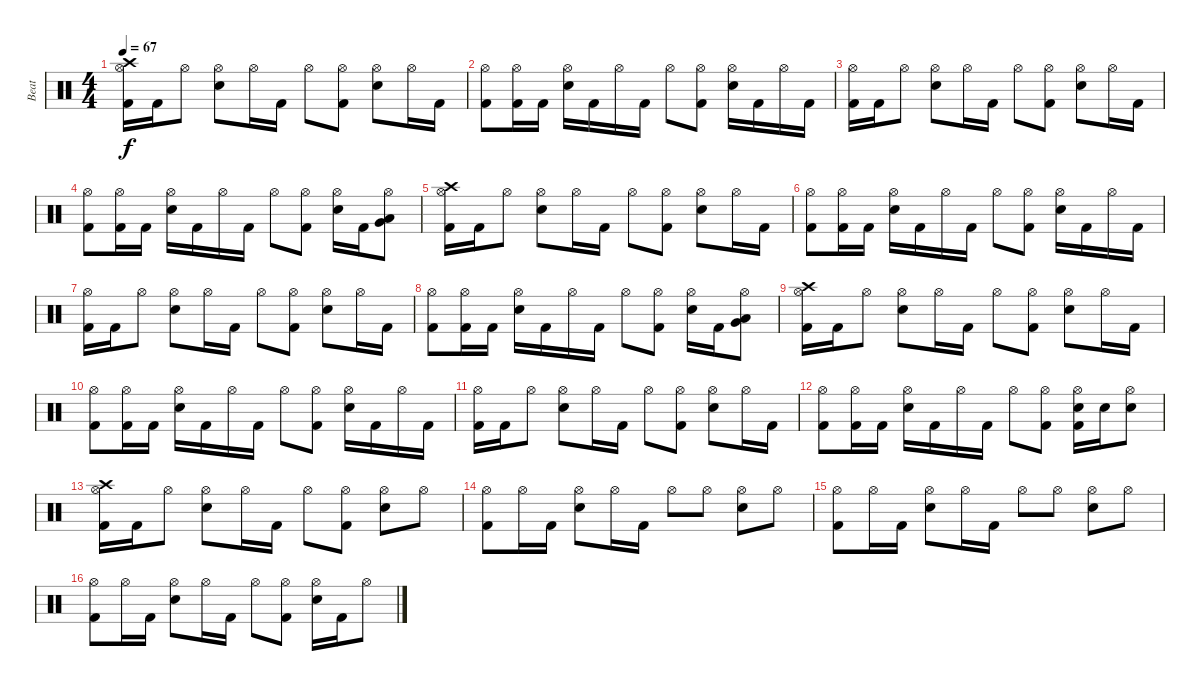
\track ("Beat" "Beat") {instrument percussion}
\staff {score}
\articulation defaults
\ts (4 4)
\tempo 67
\clef neutral
\ks c
("Crash high (hit)" "Hi-Hat (open)" "Kick (hit) 2").16{dy f} "Kick (hit) 2".16 "Hi-Hat (open)".8 ("Hi-Hat (open)" "Electric Snare (hit)").8 "Hi-Hat (open)".16 "Kick (hit) 2".16 "Hi-Hat (open)".8 ("Hi-Hat (open)" "Kick (hit) 2").8 ("Hi-Hat (open)" "Electric Snare (hit)").8 "Hi-Hat (open)".16 "Kick (hit) 2".16 |
("Hi-Hat (open)" "Kick (hit) 2").8 ("Hi-Hat (open)" "Kick (hit) 2").16 "Kick (hit) 2".16 ("Hi-Hat (open)" "Electric Snare (hit)").16 "Kick (hit) 2".16 "Hi-Hat (open)".16 "Kick (hit) 2".16 "Hi-Hat (open)".8 ("Hi-Hat (open)" "Kick (hit) 2").8 ("Hi-Hat (open)" "Electric Snare (hit)").16 "Kick (hit) 2".16 "Hi-Hat (open)".16 "Kick (hit) 2".16 |
("Hi-Hat (open)" "Kick (hit) 2").16 "Kick (hit) 2".16 "Hi-Hat (open)".8 ("Hi-Hat (open)" "Electric Snare (hit)").8 "Hi-Hat (open)".16 "Kick (hit) 2".16 "Hi-Hat (open)".8 ("Hi-Hat (open)" "Kick (hit) 2").8 ("Hi-Hat (open)" "Electric Snare (hit)").8 "Hi-Hat (open)".16 "Kick (hit) 2".16 |
("Hi-Hat (open)" "Kick (hit) 2").8 ("Hi-Hat (open)" "Kick (hit) 2").16 "Kick (hit) 2".16 ("Hi-Hat (open)" "Electric Snare (hit)").16 "Kick (hit) 2".16 "Hi-Hat (open)".16 "Kick (hit) 2".16 "Hi-Hat (open)".8 ("Hi-Hat (open)" "Kick (hit) 2").8 ("Hi-Hat (open)" "Electric Snare (hit)").16 "Kick (hit) 2".16 ("Hi-Hat (open)" "Very Low Tom (hit)" "Low Tom (hit)").8 |
("Crash high (hit)" "Hi-Hat (open)" "Kick (hit) 2").16 "Kick (hit) 2".16 "Hi-Hat (open)".8 ("Hi-Hat (open)" "Electric Snare (hit)").8 "Hi-Hat (open)".16 "Kick (hit) 2".16 "Hi-Hat (open)".8 ("Hi-Hat (open)" "Kick (hit) 2").8 ("Hi-Hat (open)" "Electric Snare (hit)").8 "Hi-Hat (open)".16 "Kick (hit) 2".16 |
("Hi-Hat (open)" "Kick (hit) 2").8 ("Hi-Hat (open)" "Kick (hit) 2").16 "Kick (hit) 2".16 ("Hi-Hat (open)" "Electric Snare (hit)").16 "Kick (hit) 2".16 "Hi-Hat (open)".16 "Kick (hit) 2".16 "Hi-Hat (open)".8 ("Hi-Hat (open)" "Kick (hit) 2").8 ("Hi-Hat (open)" "Electric Snare (hit)").16 "Kick (hit) 2".16 "Hi-Hat (open)".16 "Kick (hit) 2".16 |
("Hi-Hat (open)" "Kick (hit) 2").16 "Kick (hit) 2".16 "Hi-Hat (open)".8 ("Hi-Hat (open)" "Electric Snare (hit)").8 "Hi-Hat (open)".16 "Kick (hit) 2".16 "Hi-Hat (open)".8 ("Hi-Hat (open)" "Kick (hit) 2").8 ("Hi-Hat (open)" "Electric Snare (hit)").8 "Hi-Hat (open)".16 "Kick (hit) 2".16 |
("Hi-Hat (open)" "Kick (hit) 2").8 ("Hi-Hat (open)" "Kick (hit) 2").16 "Kick (hit) 2".16 ("Hi-Hat (open)" "Electric Snare (hit)").16 "Kick (hit) 2".16 "Hi-Hat (open)".16 "Kick (hit) 2".16 "Hi-Hat (open)".8 ("Hi-Hat (open)" "Kick (hit) 2").8 ("Hi-Hat (open)" "Electric Snare (hit)").16 "Kick (hit) 2".16 ("Hi-Hat (open)" "Very Low Tom (hit)" "Low Tom (hit)").8 |
("Crash high (hit)" "Hi-Hat (open)" "Kick (hit) 2").16 "Kick (hit) 2".16 "Hi-Hat (open)".8 ("Hi-Hat (open)" "Electric Snare (hit)").8 "Hi-Hat (open)".16 "Kick (hit) 2".16 "Hi-Hat (open)".8 ("Hi-Hat (open)" "Kick (hit) 2").8 ("Hi-Hat (open)" "Electric Snare (hit)").8 "Hi-Hat (open)".16 "Kick (hit) 2".16 |
("Hi-Hat (open)" "Kick (hit) 2").8 ("Hi-Hat (open)" "Kick (hit) 2").16 "Kick (hit) 2".16 ("Hi-Hat (open)" "Electric Snare (hit)").16 "Kick (hit) 2".16 "Hi-Hat (open)".16 "Kick (hit) 2".16 "Hi-Hat (open)".8 ("Hi-Hat (open)" "Kick (hit) 2").8 ("Hi-Hat (open)" "Electric Snare (hit)").16 "Kick (hit) 2".16 "Hi-Hat (open)".16 "Kick (hit) 2".16 |
("Hi-Hat (open)" "Kick (hit) 2").16 "Kick (hit) 2".16 "Hi-Hat (open)".8 ("Hi-Hat (open)" "Electric Snare (hit)").8 "Hi-Hat (open)".16 "Kick (hit) 2".16 "Hi-Hat (open)".8 ("Hi-Hat (open)" "Kick (hit) 2").8 ("Hi-Hat (open)" "Electric Snare (hit)").8 "Hi-Hat (open)".16 "Kick (hit) 2".16 |
("Hi-Hat (open)" "Kick (hit) 2").8 ("Hi-Hat (open)" "Kick (hit) 2").16 "Kick (hit) 2".16 ("Hi-Hat (open)" "Electric Snare (hit)").16 "Kick (hit) 2".16 "Hi-Hat (open)".16 "Kick (hit) 2".16 "Hi-Hat (open)".8 ("Hi-Hat (open)" "Kick (hit) 2").8 ("Hi-Hat (open)" "Electric Snare (hit)" "Kick (hit) 2").16 "Electric Snare (hit)".16 ("Hi-Hat (open)" "Electric Snare (hit)").8 |
("Crash high (hit)" "Hi-Hat (open)" "Kick (hit) 2").16 "Kick (hit) 2".16 "Hi-Hat (open)".8 ("Hi-Hat (open)" "Electric Snare (hit)").8 "Hi-Hat (open)".16 "Kick (hit) 2".16 "Hi-Hat (open)".8 ("Hi-Hat (open)" "Kick (hit) 2").8 ("Hi-Hat (open)" "Electric Snare (hit)").8 "Hi-Hat (open)".8 |
("Hi-Hat (open)" "Kick (hit) 2").8 "Hi-Hat (open)".16 "Kick (hit) 2".16 ("Hi-Hat (open)" "Electric Snare (hit)").8 "Hi-Hat (open)".16 "Kick (hit) 2".16 "Hi-Hat (open)".8 "Hi-Hat (open)".8 ("Hi-Hat (open)" "Electric Snare (hit)").8 "Hi-Hat (open)".8 |
("Hi-Hat (open)" "Kick (hit) 2").8 "Hi-Hat (open)".16 "Kick (hit) 2".16 ("Hi-Hat (open)" "Electric Snare (hit)").8 "Hi-Hat (open)".16 "Kick (hit) 2".16 "Hi-Hat (open)".8 "Hi-Hat (open)".8 ("Hi-Hat (open)" "Electric Snare (hit)").8 "Hi-Hat (open)".8 |
("Hi-Hat (open)" "Kick (hit) 2").8 "Hi-Hat (open)".16 "Kick (hit) 2".16 ("Hi-Hat (open)" "Electric Snare (hit)").8 "Hi-Hat (open)".16 "Kick (hit) 2".16 "Hi-Hat (open)".8 ("Hi-Hat (open)" "Kick (hit) 2").8 ("Hi-Hat (open)" "Electric Snare (hit)").16 "Kick (hit) 2".16 "Hi-Hat (open)".8
